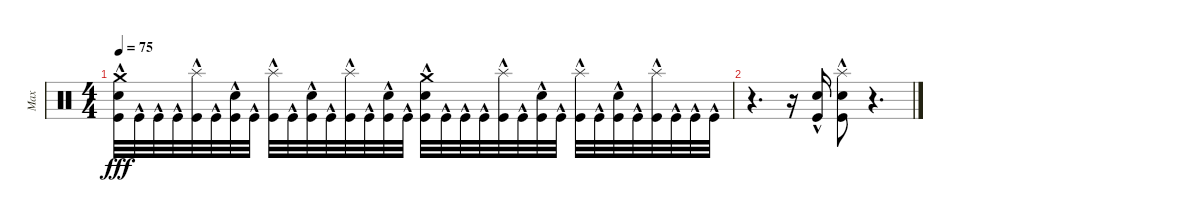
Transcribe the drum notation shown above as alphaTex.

\track ("Max" "Max") {instrument percussion}
\staff {score}
\articulation defaults
\ts (4 4)
\tempo 75
\clef neutral
\ks c
("Crash medium (hit)" "Electric Snare (hit)" "Kick (hit)"{hac}).32{dy fff} "Kick (hit)"{hac}.32 "Kick (hit)"{hac}.32 "Kick (hit)"{hac}.32 ("Splash (hit)" "Kick (hit)"{hac}).32 "Kick (hit)"{hac}.32 ("Electric Snare (hit)" "Kick (hit)"{hac}).32 "Kick (hit)"{hac}.32 ("Splash (hit)" "Kick (hit)"{hac}).32 "Kick (hit)"{hac}.32 ("Electric Snare (hit)" "Kick (hit)"{hac}).32 "Kick (hit)"{hac}.32 ("Splash (hit)" "Kick (hit)"{hac}).32 "Kick (hit)"{hac}.32 ("Electric Snare (hit)" "Kick (hit)"{hac}).32 "Kick (hit)"{hac}.32 ("Crash medium (hit)" "Electric Snare (hit)" "Kick (hit)"{hac}).32 "Kick (hit)"{hac}.32 "Kick (hit)"{hac}.32 "Kick (hit)"{hac}.32 ("Splash (hit)" "Kick (hit)"{hac}).32 "Kick (hit)"{hac}.32 ("Electric Snare (hit)" "Kick (hit)"{hac}).32 "Kick (hit)"{hac}.32 ("Splash (hit)" "Kick (hit)"{hac}).32 "Kick (hit)"{hac}.32 ("Electric Snare (hit)" "Kick (hit)"{hac}).32 "Kick (hit)"{hac}.32 ("Splash (hit)" "Kick (hit)"{hac}).32 "Kick (hit)"{hac}.32 "Kick (hit)"{hac}.32 "Kick (hit)"{hac}.32 |
r.4{d} r.16 ("Electric Snare (hit)" "Kick (hit)"{hac}).16 ("Splash (hit)" "Electric Snare (hit)" "Kick (hit)"{hac}).8 r.4{d}
